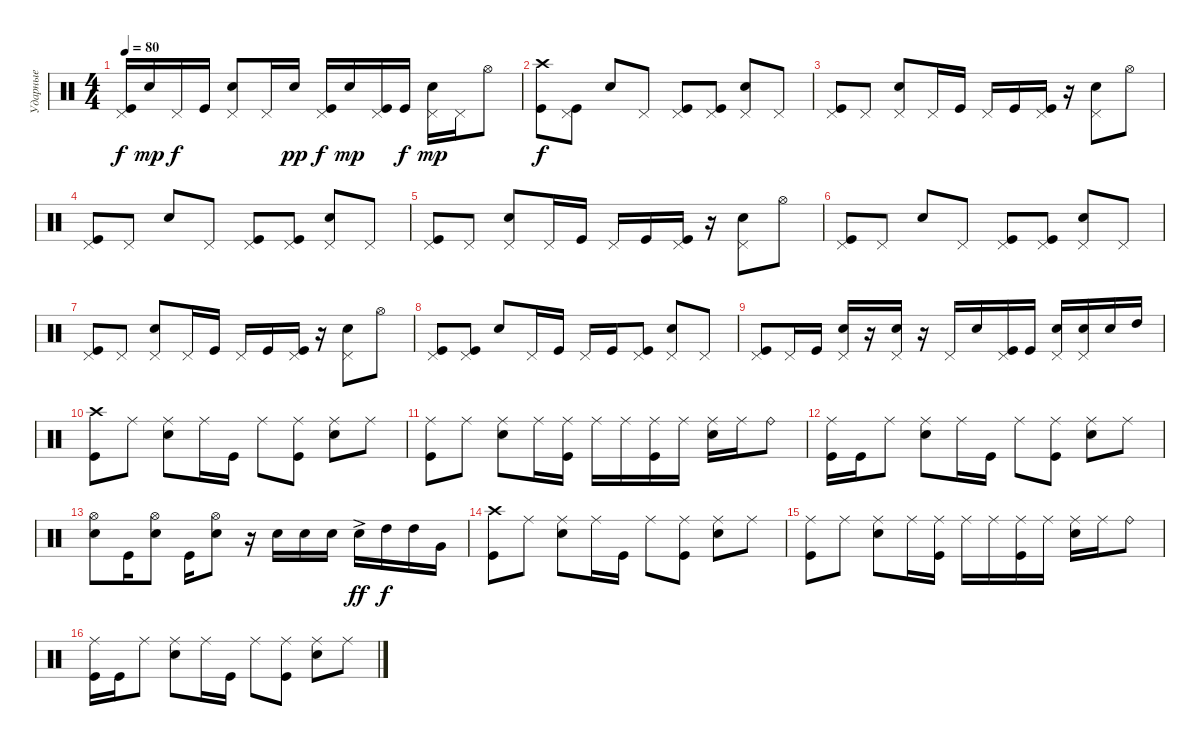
\track ("Ударные" "Ударные") {instrument percussion}
\staff {score}
\articulation defaults
\ts (4 4)
\tempo 80
\clef neutral
\ks c
("Pedal Hi-Hat (hit)" "Kick (hit)").16{dy f} "Snare (hit) 2".16{dy mp} "Pedal Hi-Hat (hit)".16{dy f} "Kick (hit)".16 ("Pedal Hi-Hat (hit)" "Snare (hit) 2").8 "Pedal Hi-Hat (hit)".16 "Snare (hit) 2".16{dy pp} ("Pedal Hi-Hat (hit)" "Kick (hit)").16{dy f} "Snare (hit) 2".16{dy mp} ("Pedal Hi-Hat (hit)" "Kick (hit)").16 "Kick (hit)".16{dy f} ("Pedal Hi-Hat (hit)" "Snare (hit) 2").16{dy mp} "Pedal Hi-Hat (hit)".16 "Hi-Hat (open)".8 |
("Crash high (hit)" "Kick (hit)").8{dy f} ("Pedal Hi-Hat (hit)" "Kick (hit)").8 "Snare (hit) 2".8 "Pedal Hi-Hat (hit)".8 ("Pedal Hi-Hat (hit)" "Kick (hit)").8 ("Pedal Hi-Hat (hit)" "Kick (hit)").8 ("Pedal Hi-Hat (hit)" "Snare (hit) 2").8 "Pedal Hi-Hat (hit)".8 |
("Pedal Hi-Hat (hit)" "Kick (hit)").8 "Pedal Hi-Hat (hit)".8 ("Pedal Hi-Hat (hit)" "Snare (hit) 2").8 "Pedal Hi-Hat (hit)".16 "Kick (hit)".16 "Pedal Hi-Hat (hit)".16 "Kick (hit)".16 ("Pedal Hi-Hat (hit)" "Kick (hit)").16 r.16 ("Pedal Hi-Hat (hit)" "Snare (hit) 2").8 "Hi-Hat (open)".8 |
("Pedal Hi-Hat (hit)" "Kick (hit)").8 "Pedal Hi-Hat (hit)".8 "Snare (hit) 2".8 "Pedal Hi-Hat (hit)".8 ("Pedal Hi-Hat (hit)" "Kick (hit)").8 ("Pedal Hi-Hat (hit)" "Kick (hit)").8 ("Pedal Hi-Hat (hit)" "Snare (hit) 2").8 "Pedal Hi-Hat (hit)".8 |
("Pedal Hi-Hat (hit)" "Kick (hit)").8 "Pedal Hi-Hat (hit)".8 ("Pedal Hi-Hat (hit)" "Snare (hit) 2").8 "Pedal Hi-Hat (hit)".16 "Kick (hit)".16 "Pedal Hi-Hat (hit)".16 "Kick (hit)".16 ("Pedal Hi-Hat (hit)" "Kick (hit)").16 r.16 ("Pedal Hi-Hat (hit)" "Snare (hit) 2").8 "Hi-Hat (open)".8 |
("Pedal Hi-Hat (hit)" "Kick (hit)").8 "Pedal Hi-Hat (hit)".8 "Snare (hit) 2".8 "Pedal Hi-Hat (hit)".8 ("Pedal Hi-Hat (hit)" "Kick (hit)").8 ("Pedal Hi-Hat (hit)" "Kick (hit)").8 ("Pedal Hi-Hat (hit)" "Snare (hit) 2").8 "Pedal Hi-Hat (hit)".8 |
("Pedal Hi-Hat (hit)" "Kick (hit)").8 "Pedal Hi-Hat (hit)".8 ("Pedal Hi-Hat (hit)" "Snare (hit) 2").8 "Pedal Hi-Hat (hit)".16 "Kick (hit)".16 "Pedal Hi-Hat (hit)".16 "Kick (hit)".16 ("Pedal Hi-Hat (hit)" "Kick (hit)").16 r.16 ("Pedal Hi-Hat (hit)" "Snare (hit) 2").8 "Hi-Hat (open)".8 |
("Pedal Hi-Hat (hit)" "Kick (hit)").8 ("Pedal Hi-Hat (hit)" "Kick (hit)").8 "Snare (hit) 2".8 "Pedal Hi-Hat (hit)".16 "Kick (hit)".16 "Pedal Hi-Hat (hit)".16 "Kick (hit)".16 ("Pedal Hi-Hat (hit)" "Kick (hit)").8 ("Pedal Hi-Hat (hit)" "Snare (hit) 2").8 "Pedal Hi-Hat (hit)".8 |
("Pedal Hi-Hat (hit)" "Kick (hit)").8 "Pedal Hi-Hat (hit)".16 "Kick (hit)".16 ("Pedal Hi-Hat (hit)" "Snare (hit) 2").16 r.16 ("Pedal Hi-Hat (hit)" "Snare (hit) 2").16 r.16 "Pedal Hi-Hat (hit)".16 "Snare (hit) 2".16 ("Pedal Hi-Hat (hit)" "Kick (hit)").16 "Kick (hit)".16 ("Pedal Hi-Hat (hit)" "Snare (hit) 2").16 ("Pedal Hi-Hat (hit)" "Snare (hit) 2").16 "Snare (hit) 2".16 "High Tom (hit)".16 |
("Crash high (hit)" "Kick (hit)").8 "Ride (middle)".8 ("Ride (middle)" "Snare (hit) 2").8 "Ride (middle)".16 "Kick (hit)".16 "Ride (middle)".8 ("Ride (middle)" "Kick (hit)").8 ("Ride (middle)" "Snare (hit) 2").8 "Ride (middle)".8 |
("Ride (middle)" "Kick (hit)").8 "Ride (middle)".8 ("Ride (middle)" "Snare (hit) 2").8 "Ride (middle)".16 ("Ride (middle)" "Kick (hit)").16 "Ride (middle)".16 "Ride (middle)".16 ("Ride (middle)" "Kick (hit)").16 "Ride (middle)".16 ("Ride (middle)" "Snare (hit) 2").16 "Ride (middle)".16 "Ride (bell)".8 |
("Ride (middle)" "Kick (hit)").16 "Kick (hit)".16 "Ride (middle)".8 ("Ride (middle)" "Snare (hit) 2").8 "Ride (middle)".16 "Kick (hit)".16 "Ride (middle)".8 ("Ride (middle)" "Kick (hit)").8 ("Ride (middle)" "Snare (hit) 2").8 "Ride (middle)".8 |
("Hi-Hat (open)" "Snare (hit) 2").8 "Kick (hit)".16 ("Hi-Hat (open)" "Snare (hit) 2").8 "Kick (hit)".16 ("Hi-Hat (open)" "Snare (hit) 2").8 r.16 "Snare (hit) 2".16 "Snare (hit) 2".16 "Snare (hit) 2".16 "Snare (hit) 2"{ac}.16{dy ff} "High Tom (hit)".16{dy f} "High Tom (hit)".16 "Very Low Tom (hit)".16 |
("Crash high (hit)" "Kick (hit)").8 "Ride (middle)".8 ("Ride (middle)" "Snare (hit) 2").8 "Ride (middle)".16 "Kick (hit)".16 "Ride (middle)".8 ("Ride (middle)" "Kick (hit)").8 ("Ride (middle)" "Snare (hit) 2").8 "Ride (middle)".8 |
("Ride (middle)" "Kick (hit)").8 "Ride (middle)".8 ("Ride (middle)" "Snare (hit) 2").8 "Ride (middle)".16 ("Ride (middle)" "Kick (hit)").16 "Ride (middle)".16 "Ride (middle)".16 ("Ride (middle)" "Kick (hit)").16 "Ride (middle)".16 ("Ride (middle)" "Snare (hit) 2").16 "Ride (middle)".16 "Ride (bell)".8 |
("Ride (middle)" "Kick (hit)").16 "Kick (hit)".16 "Ride (middle)".8 ("Ride (middle)" "Snare (hit) 2").8 "Ride (middle)".16 "Kick (hit)".16 "Ride (middle)".8 ("Ride (middle)" "Kick (hit)").8 ("Ride (middle)" "Snare (hit) 2").8 "Ride (middle)".8
